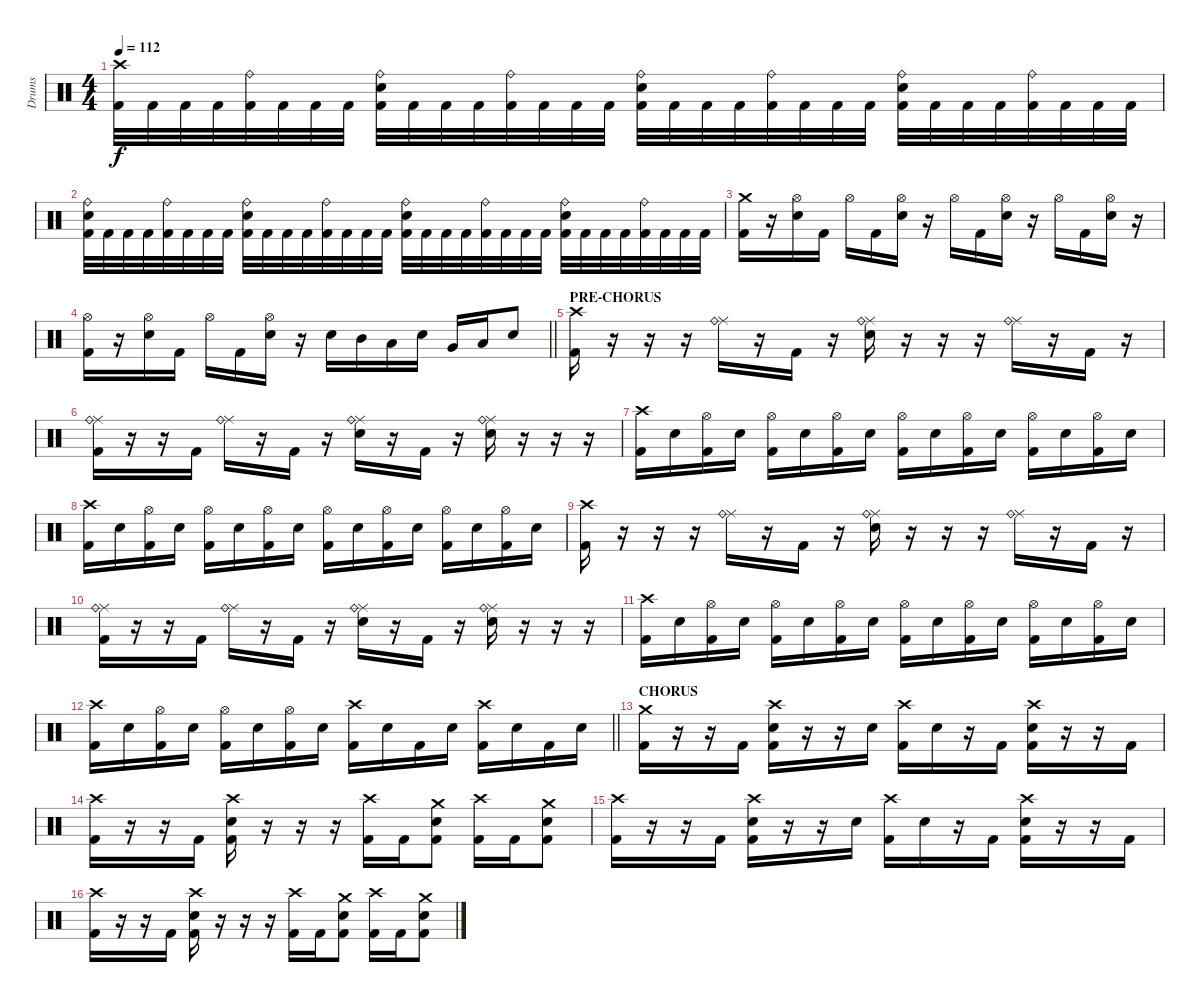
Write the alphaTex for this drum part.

\track ("Drums" "Drums") {instrument percussion}
\staff
\articulation defaults
\ts (4 4)
\section ("" "")
\tempo 112
\clef neutral
\ks c
("Crash high (hit)" "Kick (hit) 2").32{dy f} "Kick (hit) 2".32 "Kick (hit) 2".32 "Kick (hit) 2".32 ("Ride (bell)" "Kick (hit) 2").32 "Kick (hit) 2".32 "Kick (hit) 2".32 "Kick (hit) 2".32 ("Ride (bell)" "Snare (hit) 2" "Kick (hit) 2").32 "Kick (hit) 2".32 "Kick (hit) 2".32 "Kick (hit) 2".32 ("Ride (bell)" "Kick (hit) 2").32 "Kick (hit) 2".32 "Kick (hit) 2".32 "Kick (hit) 2".32 ("Ride (bell)" "Snare (hit) 2" "Kick (hit) 2").32 "Kick (hit) 2".32 "Kick (hit) 2".32 "Kick (hit) 2".32 ("Ride (bell)" "Kick (hit) 2").32 "Kick (hit) 2".32 "Kick (hit) 2".32 "Kick (hit) 2".32 ("Ride (bell)" "Snare (hit) 2" "Kick (hit) 2").32 "Kick (hit) 2".32 "Kick (hit) 2".32 "Kick (hit) 2".32 ("Ride (bell)" "Kick (hit) 2").32 "Kick (hit) 2".32 "Kick (hit) 2".32 "Kick (hit) 2".32 |
("Ride (bell)" "Snare (hit) 2" "Kick (hit) 2").32 "Kick (hit) 2".32 "Kick (hit) 2".32 "Kick (hit) 2".32 ("Ride (bell)" "Kick (hit) 2").32 "Kick (hit) 2".32 "Kick (hit) 2".32 "Kick (hit) 2".32 ("Ride (bell)" "Snare (hit) 2" "Kick (hit) 2").32 "Kick (hit) 2".32 "Kick (hit) 2".32 "Kick (hit) 2".32 ("Ride (bell)" "Kick (hit) 2").32 "Kick (hit) 2".32 "Kick (hit) 2".32 "Kick (hit) 2".32 ("Ride (bell)" "Snare (hit) 2" "Kick (hit) 2").32 "Kick (hit) 2".32 "Kick (hit) 2".32 "Kick (hit) 2".32 ("Ride (bell)" "Kick (hit) 2").32 "Kick (hit) 2".32 "Kick (hit) 2".32 "Kick (hit) 2".32 ("Ride (bell)" "Snare (hit) 2" "Kick (hit) 2").32 "Kick (hit) 2".32 "Kick (hit) 2".32 "Kick (hit) 2".32 ("Ride (bell)" "Kick (hit) 2").32 "Kick (hit) 2".32 "Kick (hit) 2".32 "Kick (hit) 2".32 |
("Crash medium (hit)" "Kick (hit) 2").16 r.16 ("Hi-Hat (open)" "Snare (hit) 2").16 "Kick (hit) 2".16 "Hi-Hat (open)".16 "Kick (hit) 2".16 ("Hi-Hat (open)" "Snare (hit) 2").16 r.16 "Hi-Hat (open)".16 "Kick (hit) 2".16 ("Hi-Hat (open)" "Snare (hit) 2").16 r.16 "Hi-Hat (open)".16 "Kick (hit) 2".16 ("Hi-Hat (open)" "Snare (hit) 2").16 r.16 |
\barLineRight lightlight
("Hi-Hat (open)" "Kick (hit) 2").16 r.16 ("Hi-Hat (open)" "Snare (hit) 2").16 "Kick (hit) 2".16 "Hi-Hat (open)".16 "Kick (hit) 2".16 ("Hi-Hat (open)" "Snare (hit) 2").16 r.16 "Snare (hit) 2".16 "Mid Tom (hit)".16 "Low Tom (hit)".16 "Snare (hit) 2".16 "Very Low Tom (hit)".16 "Low Floor Tom (hit)".16 "Snare (hit) 2".8 |
\section ("" "PRE-CHORUS")
("Crash high (hit)" "Kick (hit) 2").16 r.16 r.16 r.16 ("Ride (middle)" "Ride (bell)").16 r.16 "Kick (hit) 2".16 r.16 ("Ride (middle)" "Ride (bell)" "Snare (hit) 2").16 r.16 r.16 r.16 ("Ride (middle)" "Ride (bell)").16 r.16 "Kick (hit) 2".16 r.16 |
("Ride (middle)" "Ride (bell)" "Kick (hit) 2").16 r.16 r.16 "Kick (hit) 2".16 ("Ride (middle)" "Ride (bell)").16 r.16 "Kick (hit) 2".16 r.16 ("Ride (middle)" "Ride (bell)" "Snare (hit) 2").16 r.16 "Kick (hit) 2".16 r.16 ("Ride (middle)" "Ride (bell)" "Snare (hit) 2").16 r.16 r.16 r.16 |
("Crash high (hit)" "Kick (hit) 2").16 "Snare (hit) 2".16 ("Hi-Hat (open)" "Kick (hit) 2").16 "Snare (hit) 2".16 ("Hi-Hat (open)" "Kick (hit) 2").16 "Snare (hit) 2".16 ("Hi-Hat (open)" "Kick (hit) 2").16 "Snare (hit) 2".16 ("Hi-Hat (open)" "Kick (hit) 2").16 "Snare (hit) 2".16 ("Hi-Hat (open)" "Kick (hit) 2").16 "Snare (hit) 2".16 ("Hi-Hat (open)" "Kick (hit) 2").16 "Snare (hit) 2".16 ("Hi-Hat (open)" "Kick (hit) 2").16 "Snare (hit) 2".16 |
("Crash high (hit)" "Kick (hit) 2").16 "Snare (hit) 2".16 ("Hi-Hat (open)" "Kick (hit) 2").16 "Snare (hit) 2".16 ("Hi-Hat (open)" "Kick (hit) 2").16 "Snare (hit) 2".16 ("Hi-Hat (open)" "Kick (hit) 2").16 "Snare (hit) 2".16 ("Hi-Hat (open)" "Kick (hit) 2").16 "Snare (hit) 2".16 ("Hi-Hat (open)" "Kick (hit) 2").16 "Snare (hit) 2".16 ("Hi-Hat (open)" "Kick (hit) 2").16 "Snare (hit) 2".16 ("Hi-Hat (open)" "Kick (hit) 2").16 "Snare (hit) 2".16 |
("Crash high (hit)" "Kick (hit) 2").16 r.16 r.16 r.16 ("Ride (middle)" "Ride (bell)").16 r.16 "Kick (hit) 2".16 r.16 ("Ride (middle)" "Ride (bell)" "Snare (hit) 2").16 r.16 r.16 r.16 ("Ride (middle)" "Ride (bell)").16 r.16 "Kick (hit) 2".16 r.16 |
("Ride (middle)" "Ride (bell)" "Kick (hit) 2").16 r.16 r.16 "Kick (hit) 2".16 ("Ride (middle)" "Ride (bell)").16 r.16 "Kick (hit) 2".16 r.16 ("Ride (middle)" "Ride (bell)" "Snare (hit) 2").16 r.16 "Kick (hit) 2".16 r.16 ("Ride (middle)" "Ride (bell)" "Snare (hit) 2").16 r.16 r.16 r.16 |
("Crash high (hit)" "Kick (hit) 2").16 "Snare (hit) 2".16 ("Hi-Hat (open)" "Kick (hit) 2").16 "Snare (hit) 2".16 ("Hi-Hat (open)" "Kick (hit) 2").16 "Snare (hit) 2".16 ("Hi-Hat (open)" "Kick (hit) 2").16 "Snare (hit) 2".16 ("Hi-Hat (open)" "Kick (hit) 2").16 "Snare (hit) 2".16 ("Hi-Hat (open)" "Kick (hit) 2").16 "Snare (hit) 2".16 ("Hi-Hat (open)" "Kick (hit) 2").16 "Snare (hit) 2".16 ("Hi-Hat (open)" "Kick (hit) 2").16 "Snare (hit) 2".16 |
\barLineRight lightlight
("Crash high (hit)" "Kick (hit) 2").16 "Snare (hit) 2".16 ("Hi-Hat (open)" "Kick (hit) 2").16 "Snare (hit) 2".16 ("Hi-Hat (open)" "Kick (hit) 2").16 "Snare (hit) 2".16 ("Hi-Hat (open)" "Kick (hit) 2").16 "Snare (hit) 2".16 ("Crash high (hit)" "Kick (hit) 2").16 "Snare (hit) 2".16 "Kick (hit) 2".16 "Snare (hit) 2".16 ("Crash high (hit)" "Kick (hit) 2").16 "Snare (hit) 2".16 "Kick (hit) 2".16 "Snare (hit) 2".16 |
\section ("" "CHORUS")
("Crash medium (hit)" "Kick (hit) 2").16 r.16 r.16 "Kick (hit) 2".16 ("Crash high (hit)" "Snare (hit) 2" "Kick (hit) 2").16 r.16 r.16 "Snare (hit) 2".16 ("Crash high (hit)" "Kick (hit) 2").16 "Snare (hit) 2".16 r.16 "Kick (hit) 2".16 ("Crash high (hit)" "Snare (hit) 2" "Kick (hit) 2").16 r.16 r.16 "Kick (hit) 2".16 |
("Crash high (hit)" "Kick (hit) 2").16 r.16 r.16 "Kick (hit) 2".16 ("Crash high (hit)" "Snare (hit) 2" "Kick (hit) 2").16 r.16 r.16 r.16 ("Crash high (hit)" "Kick (hit) 2").16 "Kick (hit) 2".16 ("Crash medium (hit)" "Snare (hit) 2" "Kick (hit) 2").8 ("Crash high (hit)" "Kick (hit) 2").16 "Kick (hit) 2".16 ("Crash medium (hit)" "Snare (hit) 2" "Kick (hit) 2").8 |
("Crash high (hit)" "Kick (hit) 2").16 r.16 r.16 "Kick (hit) 2".16 ("Crash high (hit)" "Snare (hit) 2" "Kick (hit) 2").16 r.16 r.16 "Snare (hit) 2".16 ("Crash high (hit)" "Kick (hit) 2").16 "Snare (hit) 2".16 r.16 "Kick (hit) 2".16 ("Crash high (hit)" "Snare (hit) 2" "Kick (hit) 2").16 r.16 r.16 "Kick (hit) 2".16 |
("Crash high (hit)" "Kick (hit) 2").16 r.16 r.16 "Kick (hit) 2".16 ("Crash high (hit)" "Snare (hit) 2" "Kick (hit) 2").16 r.16 r.16 r.16 ("Crash high (hit)" "Kick (hit) 2").16 "Kick (hit) 2".16 ("Crash medium (hit)" "Snare (hit) 2" "Kick (hit) 2").8 ("Crash high (hit)" "Kick (hit) 2").16 "Kick (hit) 2".16 ("Crash medium (hit)" "Snare (hit) 2" "Kick (hit) 2").8
